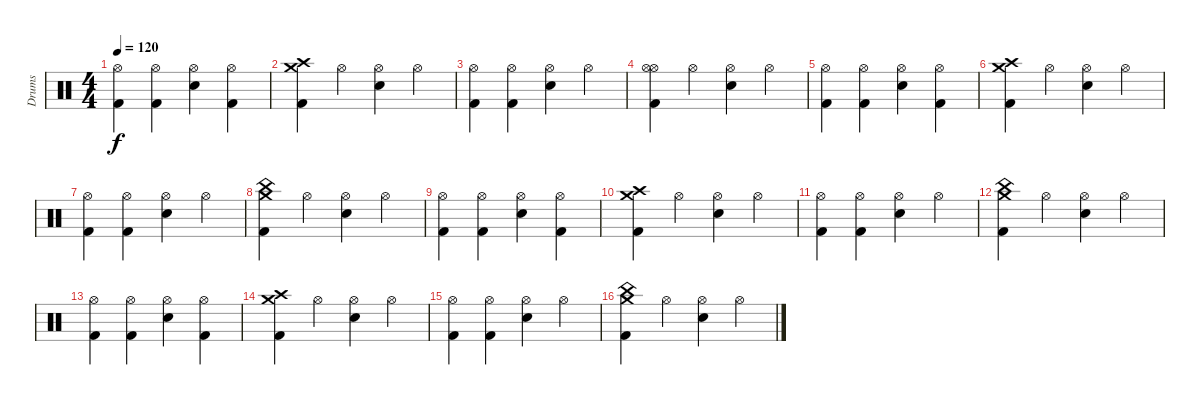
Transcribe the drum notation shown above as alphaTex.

\track ("Drums" "Drums") {instrument percussion}
\staff {score}
\articulation defaults
\ts (4 4)
\tempo 120
\clef neutral
\ks c
("Hi-Hat (open)" "Kick (hit) 2").4{dy f} ("Hi-Hat (open)" "Kick (hit) 2").4 ("Hi-Hat (open)" "Snare (hit) 2").4 ("Hi-Hat (open)" "Kick (hit) 2").4 |
("Crash high (hit)" "Crash medium (hit)" "Kick (hit) 2").4 "Hi-Hat (open)".4 ("Hi-Hat (open)" "Snare (hit) 2").4 "Hi-Hat (open)".4 |
("Hi-Hat (open)" "Kick (hit) 2").4 ("Hi-Hat (open)" "Kick (hit) 2").4 ("Hi-Hat (open)" "Snare (hit) 2").4 "Hi-Hat (open)".4 |
("Hi-Hat (open)" "Hi-Hat (open)" "Kick (hit) 2").4 "Hi-Hat (open)".4 ("Hi-Hat (open)" "Snare (hit) 2").4 "Hi-Hat (open)".4 |
("Hi-Hat (open)" "Kick (hit) 2").4 ("Hi-Hat (open)" "Kick (hit) 2").4 ("Hi-Hat (open)" "Snare (hit) 2").4 ("Hi-Hat (open)" "Kick (hit) 2").4 |
("Crash high (hit)" "Crash medium (hit)" "Kick (hit) 2").4 "Hi-Hat (open)".4 ("Hi-Hat (open)" "Snare (hit) 2").4 "Hi-Hat (open)".4 |
("Hi-Hat (open)" "Kick (hit) 2").4 ("Hi-Hat (open)" "Kick (hit) 2").4 ("Hi-Hat (open)" "Snare (hit) 2").4 "Hi-Hat (open)".4 |
("Crash medium (hit)" "China (hit)" "Kick (hit) 2").4 "Hi-Hat (open)".4 ("Hi-Hat (open)" "Snare (hit) 2").4 "Hi-Hat (open)".4 |
("Hi-Hat (open)" "Kick (hit) 2").4 ("Hi-Hat (open)" "Kick (hit) 2").4 ("Hi-Hat (open)" "Snare (hit) 2").4 ("Hi-Hat (open)" "Kick (hit) 2").4 |
("Crash high (hit)" "Crash medium (hit)" "Kick (hit) 2").4 "Hi-Hat (open)".4 ("Hi-Hat (open)" "Snare (hit) 2").4 "Hi-Hat (open)".4 |
("Hi-Hat (open)" "Kick (hit) 2").4 ("Hi-Hat (open)" "Kick (hit) 2").4 ("Hi-Hat (open)" "Snare (hit) 2").4 "Hi-Hat (open)".4 |
("Crash medium (hit)" "China (hit)" "Kick (hit) 2").4 "Hi-Hat (open)".4 ("Hi-Hat (open)" "Snare (hit) 2").4 "Hi-Hat (open)".4 |
("Hi-Hat (open)" "Kick (hit) 2").4 ("Hi-Hat (open)" "Kick (hit) 2").4 ("Hi-Hat (open)" "Snare (hit) 2").4 ("Hi-Hat (open)" "Kick (hit) 2").4 |
("Crash high (hit)" "Crash medium (hit)" "Kick (hit) 2").4 "Hi-Hat (open)".4 ("Hi-Hat (open)" "Snare (hit) 2").4 "Hi-Hat (open)".4 |
("Hi-Hat (open)" "Kick (hit) 2").4 ("Hi-Hat (open)" "Kick (hit) 2").4 ("Hi-Hat (open)" "Snare (hit) 2").4 "Hi-Hat (open)".4 |
("Crash medium (hit)" "China (hit)" "Kick (hit) 2").4 "Hi-Hat (open)".4 ("Hi-Hat (open)" "Snare (hit) 2").4 "Hi-Hat (open)".4
